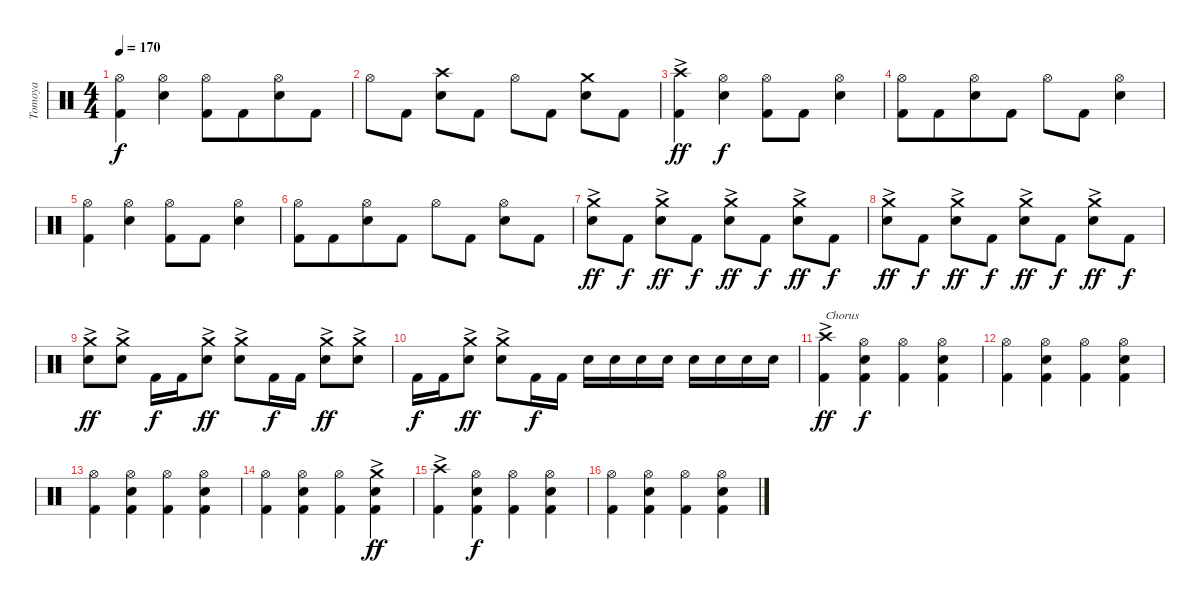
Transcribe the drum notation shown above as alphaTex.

\track ("Tomoya" "Tomoya") {instrument percussion}
\staff {score}
\articulation defaults
\ts (4 4)
\tempo 170
\clef neutral
\ks c
("Hi-Hat (open)" "Kick (hit) 2").4{dy f} ("Hi-Hat (open)" "Snare (hit) 2").4 ("Hi-Hat (open)" "Kick (hit) 2").8 "Kick (hit) 2".8{beam merge} ("Hi-Hat (open)" "Snare (hit) 2").8 "Kick (hit) 2".8 |
"Hi-Hat (open)".8 "Kick (hit) 2".8 ("Crash high (hit)" "Snare (hit) 2").8 "Kick (hit) 2".8 "Hi-Hat (open)".8 "Kick (hit) 2".8 ("Crash medium (hit)" "Snare (hit) 2").8 "Kick (hit) 2".8 |
("Crash high (hit)"{ac} "Kick (hit) 2"{ac}).4{dy ff} ("Hi-Hat (open)" "Snare (hit) 2").4{dy f} ("Hi-Hat (open)" "Kick (hit) 2").8 "Kick (hit) 2".8 ("Hi-Hat (open)" "Snare (hit) 2").4 |
("Hi-Hat (open)" "Kick (hit) 2").8 "Kick (hit) 2".8{beam merge} ("Hi-Hat (open)" "Snare (hit) 2").8 "Kick (hit) 2".8 "Hi-Hat (open)".8 "Kick (hit) 2".8 ("Hi-Hat (open)" "Snare (hit) 2").4 |
("Hi-Hat (open)" "Kick (hit) 2").4 ("Hi-Hat (open)" "Snare (hit) 2").4 ("Hi-Hat (open)" "Kick (hit) 2").8 "Kick (hit) 2".8 ("Hi-Hat (open)" "Snare (hit) 2").4 |
("Hi-Hat (open)" "Kick (hit) 2").8 "Kick (hit) 2".8{beam merge} ("Hi-Hat (open)" "Snare (hit) 2").8 "Kick (hit) 2".8 "Hi-Hat (open)".8 "Kick (hit) 2".8 ("Hi-Hat (open)" "Snare (hit) 2").8 "Kick (hit) 2".8 |
("Crash medium (hit)"{ac} "Snare (hit) 2"{ac}).8{dy ff} "Kick (hit) 2".8{dy f} ("Crash medium (hit)"{ac} "Snare (hit) 2"{ac}).8{dy ff} "Kick (hit) 2".8{dy f} ("Crash medium (hit)"{ac} "Snare (hit) 2"{ac}).8{dy ff} "Kick (hit) 2".8{dy f} ("Crash medium (hit)"{ac} "Snare (hit) 2"{ac}).8{dy ff} "Kick (hit) 2".8{dy f} |
("Crash medium (hit)"{ac} "Snare (hit) 2"{ac}).8{dy ff} "Kick (hit) 2".8{dy f} ("Crash medium (hit)"{ac} "Snare (hit) 2"{ac}).8{dy ff} "Kick (hit) 2".8{dy f} ("Crash medium (hit)"{ac} "Snare (hit) 2"{ac}).8{dy ff} "Kick (hit) 2".8{dy f} ("Crash medium (hit)"{ac} "Snare (hit) 2"{ac}).8{dy ff} "Kick (hit) 2".8{dy f} |
("Crash medium (hit)"{ac} "Snare (hit) 2"{ac}).8{dy ff} ("Crash medium (hit)"{ac} "Snare (hit) 2"{ac}).8 "Kick (hit) 2".16{dy f} "Kick (hit) 2".16 ("Crash medium (hit)"{ac} "Snare (hit) 2"{ac}).8{dy ff} ("Crash medium (hit)"{ac} "Snare (hit) 2"{ac}).8 "Kick (hit) 2".16{dy f} "Kick (hit) 2".16 ("Crash medium (hit)"{ac} "Snare (hit) 2"{ac}).8{dy ff} ("Crash medium (hit)"{ac} "Snare (hit) 2"{ac}).8 |
"Kick (hit) 2".16{dy f} "Kick (hit) 2".16 ("Crash medium (hit)"{ac} "Snare (hit) 2"{ac}).8{dy ff} ("Crash medium (hit)"{ac} "Snare (hit) 2"{ac}).8 "Kick (hit) 2".16{dy f} "Kick (hit) 2".16 "Snare (hit) 2".16 "Snare (hit) 2".16 "Snare (hit) 2".16 "Snare (hit) 2".16 "Snare (hit) 2".16 "Snare (hit) 2".16 "Snare (hit) 2".16 "Snare (hit) 2".16 |
("Crash high (hit)"{ac} "Kick (hit) 2").4{txt "Chorus" dy ff} ("Hi-Hat (open)" "Snare (hit) 2" "Kick (hit) 2").4{dy f} ("Hi-Hat (open)" "Kick (hit) 2").4 ("Hi-Hat (open)" "Snare (hit) 2" "Kick (hit) 2").4 |
("Hi-Hat (open)" "Kick (hit) 2").4 ("Hi-Hat (open)" "Snare (hit) 2" "Kick (hit) 2").4 ("Hi-Hat (open)" "Kick (hit) 2").4 ("Hi-Hat (open)" "Snare (hit) 2" "Kick (hit) 2").4 |
("Hi-Hat (open)" "Kick (hit) 2").4 ("Hi-Hat (open)" "Snare (hit) 2" "Kick (hit) 2").4 ("Hi-Hat (open)" "Kick (hit) 2").4 ("Hi-Hat (open)" "Snare (hit) 2" "Kick (hit) 2").4 |
("Hi-Hat (open)" "Kick (hit) 2").4 ("Hi-Hat (open)" "Snare (hit) 2" "Kick (hit) 2").4 ("Hi-Hat (open)" "Kick (hit) 2").4 ("Crash medium (hit)"{ac} "Snare (hit) 2" "Kick (hit) 2").4{dy ff} |
("Crash high (hit)"{ac} "Kick (hit) 2").4 ("Hi-Hat (open)" "Snare (hit) 2" "Kick (hit) 2").4{dy f} ("Hi-Hat (open)" "Kick (hit) 2").4 ("Hi-Hat (open)" "Snare (hit) 2" "Kick (hit) 2").4 |
("Hi-Hat (open)" "Kick (hit) 2").4 ("Hi-Hat (open)" "Snare (hit) 2" "Kick (hit) 2").4 ("Hi-Hat (open)" "Kick (hit) 2").4 ("Hi-Hat (open)" "Snare (hit) 2" "Kick (hit) 2").4
